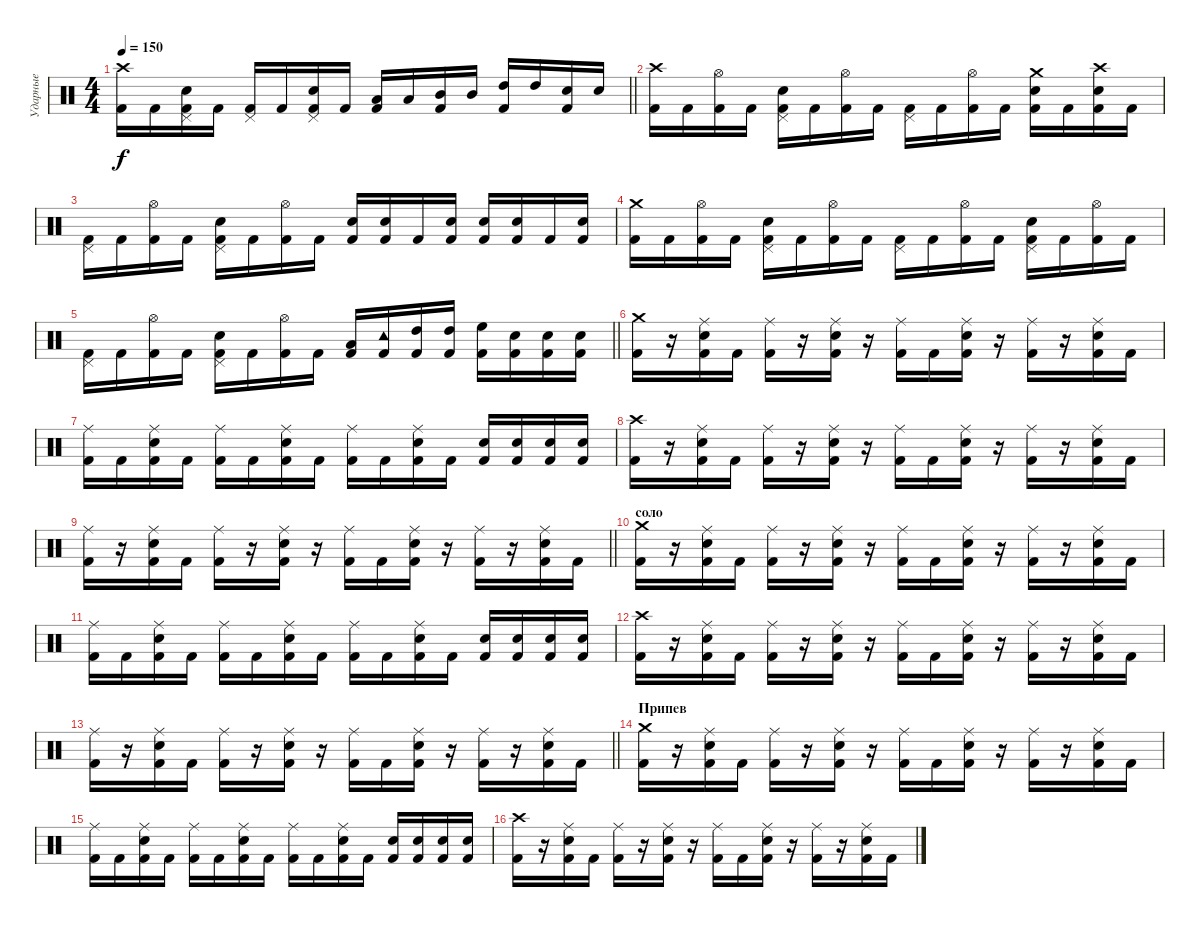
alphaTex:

\track ("Ударные" "Ударные") {instrument percussion}
\staff {score}
\articulation defaults
\ts (4 4)
\tempo 150
\clef neutral
\barLineRight lightlight
\ks c
("Crash high (hit)" "Kick (hit) 2").16{dy f} "Kick (hit) 2".16 ("Pedal Hi-Hat (hit)" "Snare (hit) 2" "Kick (hit) 2").16 "Kick (hit) 2".16 ("Pedal Hi-Hat (hit)" "Kick (hit) 2").16 "Kick (hit) 2".16 ("Pedal Hi-Hat (hit)" "Snare (hit) 2" "Kick (hit) 2").16 "Kick (hit) 2".16 ("Low Tom (hit)" "Kick (hit) 2").16 "Low Tom (hit)".16 ("Mid Tom (hit)" "Kick (hit) 2").16 "Mid Tom (hit)".16 ("High Tom (hit)" "Kick (hit) 2").16 "High Tom (hit)".16 ("Snare (hit) 2" "Kick (hit) 2").16 "Snare (hit) 2".16 |
("Crash high (hit)" "Kick (hit) 2").16 "Kick (hit) 2".16 ("Hi-Hat (open)" "Kick (hit) 2").16 "Kick (hit) 2".16 ("Pedal Hi-Hat (hit)" "Snare (hit) 2" "Kick (hit) 2").16 "Kick (hit) 2".16 ("Hi-Hat (open)" "Kick (hit) 2").16 "Kick (hit) 2".16 ("Pedal Hi-Hat (hit)" "Kick (hit) 2").16 "Kick (hit) 2".16 ("Hi-Hat (open)" "Kick (hit) 2").16 "Kick (hit) 2".16 ("Crash medium (hit)" "Snare (hit) 2" "Kick (hit) 2").16 "Kick (hit) 2".16 ("Crash high (hit)" "Snare (hit) 2" "Kick (hit) 2").16 "Kick (hit) 2".16 |
("Pedal Hi-Hat (hit)" "Kick (hit) 2").16 "Kick (hit) 2".16 ("Hi-Hat (open)" "Kick (hit) 2").16 "Kick (hit) 2".16 ("Pedal Hi-Hat (hit)" "Snare (hit) 2" "Kick (hit) 2").16 "Kick (hit) 2".16 ("Hi-Hat (open)" "Kick (hit) 2").16 "Kick (hit) 2".16 ("Snare (hit) 2" "Kick (hit) 2").16 ("Snare (hit) 2" "Kick (hit) 2").16 "Kick (hit) 2".16 ("Snare (hit) 2" "Kick (hit) 2").16 ("Snare (hit) 2" "Kick (hit) 2").16 ("Snare (hit) 2" "Kick (hit) 2").16 "Kick (hit) 2".16 ("Snare (hit) 2" "Kick (hit) 2").16 |
("Crash medium (hit)" "Kick (hit) 2").16 "Kick (hit) 2".16 ("Hi-Hat (open)" "Kick (hit) 2").16 "Kick (hit) 2".16 ("Pedal Hi-Hat (hit)" "Snare (hit) 2" "Kick (hit) 2").16 "Kick (hit) 2".16 ("Hi-Hat (open)" "Kick (hit) 2").16 "Kick (hit) 2".16 ("Pedal Hi-Hat (hit)" "Kick (hit) 2").16 "Kick (hit) 2".16 ("Hi-Hat (open)" "Kick (hit) 2").16 "Kick (hit) 2".16 ("Pedal Hi-Hat (hit)" "Snare (hit) 2" "Kick (hit) 2").16 "Kick (hit) 2".16 ("Hi-Hat (open)" "Kick (hit) 2").16 "Kick (hit) 2".16 |
\barLineRight lightlight
("Pedal Hi-Hat (hit)" "Kick (hit) 2").16 "Kick (hit) 2".16 ("Hi-Hat (open)" "Kick (hit) 2").16 "Kick (hit) 2".16 ("Pedal Hi-Hat (hit)" "Snare (hit) 2" "Kick (hit) 2").16 "Kick (hit) 2".16 ("Hi-Hat (open)" "Kick (hit) 2").16 "Kick (hit) 2".16 ("Low Tom (hit)" "Kick (hit) 2").16 ("Tambourine (hit)" "Kick (hit) 2").16 ("High Tom (hit)" "Kick (hit) 2").16 ("High Tom (hit)" "Kick (hit) 2").16 ("High Floor Tom (hit)" "Kick (hit) 2").16 ("Snare (hit) 2" "Kick (hit) 2").16 ("Snare (hit) 2" "Kick (hit) 2").16 ("Snare (hit) 2" "Kick (hit) 2").16 |
("Crash medium (hit)" "Kick (hit) 2").16 r.16 ("Ride (middle)" "Snare (hit) 2" "Kick (hit) 2").16 "Kick (hit) 2".16 ("Ride (middle)" "Kick (hit) 2").16 r.16 ("Ride (middle)" "Snare (hit) 2" "Kick (hit) 2").16 r.16 ("Ride (middle)" "Kick (hit) 2").16 "Kick (hit) 2".16 ("Ride (middle)" "Snare (hit) 2" "Kick (hit) 2").16 r.16 ("Ride (middle)" "Kick (hit) 2").16 r.16 ("Ride (middle)" "Snare (hit) 2" "Kick (hit) 2").16 "Kick (hit) 2".16 |
("Ride (middle)" "Kick (hit) 2").16 "Kick (hit) 2".16 ("Ride (middle)" "Snare (hit) 2" "Kick (hit) 2").16 "Kick (hit) 2".16 ("Ride (middle)" "Kick (hit) 2").16 "Kick (hit) 2".16 ("Ride (middle)" "Snare (hit) 2" "Kick (hit) 2").16 "Kick (hit) 2".16 ("Ride (middle)" "Kick (hit) 2").16 "Kick (hit) 2".16 ("Ride (middle)" "Snare (hit) 2" "Kick (hit) 2").16 "Kick (hit) 2".16 ("Snare (hit) 2" "Kick (hit) 2").16 ("Snare (hit) 2" "Kick (hit) 2").16 ("Snare (hit) 2" "Kick (hit) 2").16 ("Snare (hit) 2" "Kick (hit) 2").16 |
("Crash high (hit)" "Kick (hit) 2").16 r.16 ("Ride (middle)" "Snare (hit) 2" "Kick (hit) 2").16 "Kick (hit) 2".16 ("Ride (middle)" "Kick (hit) 2").16 r.16 ("Ride (middle)" "Snare (hit) 2" "Kick (hit) 2").16 r.16 ("Ride (middle)" "Kick (hit) 2").16 "Kick (hit) 2".16 ("Ride (middle)" "Snare (hit) 2" "Kick (hit) 2").16 r.16 ("Ride (middle)" "Kick (hit) 2").16 r.16 ("Ride (middle)" "Snare (hit) 2" "Kick (hit) 2").16 "Kick (hit) 2".16 |
\barLineRight lightlight
("Ride (middle)" "Kick (hit) 2").16 r.16 ("Ride (middle)" "Snare (hit) 2" "Kick (hit) 2").16 "Kick (hit) 2".16 ("Ride (middle)" "Kick (hit) 2").16 r.16 ("Ride (middle)" "Snare (hit) 2" "Kick (hit) 2").16 r.16 ("Ride (middle)" "Kick (hit) 2").16 "Kick (hit) 2".16 ("Ride (middle)" "Snare (hit) 2" "Kick (hit) 2").16 r.16 ("Ride (middle)" "Kick (hit) 2").16 r.16 ("Ride (middle)" "Snare (hit) 2" "Kick (hit) 2").16 "Kick (hit) 2".16 |
\section ("" "соло")
("Crash medium (hit)" "Kick (hit) 2").16 r.16 ("Ride (middle)" "Snare (hit) 2" "Kick (hit) 2").16 "Kick (hit) 2".16 ("Ride (middle)" "Kick (hit) 2").16 r.16 ("Ride (middle)" "Snare (hit) 2" "Kick (hit) 2").16 r.16 ("Ride (middle)" "Kick (hit) 2").16 "Kick (hit) 2".16 ("Ride (middle)" "Snare (hit) 2" "Kick (hit) 2").16 r.16 ("Ride (middle)" "Kick (hit) 2").16 r.16 ("Ride (middle)" "Snare (hit) 2" "Kick (hit) 2").16 "Kick (hit) 2".16 |
("Ride (middle)" "Kick (hit) 2").16 "Kick (hit) 2".16 ("Ride (middle)" "Snare (hit) 2" "Kick (hit) 2").16 "Kick (hit) 2".16 ("Ride (middle)" "Kick (hit) 2").16 "Kick (hit) 2".16 ("Ride (middle)" "Snare (hit) 2" "Kick (hit) 2").16 "Kick (hit) 2".16 ("Ride (middle)" "Kick (hit) 2").16 "Kick (hit) 2".16 ("Ride (middle)" "Snare (hit) 2" "Kick (hit) 2").16 "Kick (hit) 2".16 ("Snare (hit) 2" "Kick (hit) 2").16 ("Snare (hit) 2" "Kick (hit) 2").16 ("Snare (hit) 2" "Kick (hit) 2").16 ("Snare (hit) 2" "Kick (hit) 2").16 |
("Crash high (hit)" "Kick (hit) 2").16 r.16 ("Ride (middle)" "Snare (hit) 2" "Kick (hit) 2").16 "Kick (hit) 2".16 ("Ride (middle)" "Kick (hit) 2").16 r.16 ("Ride (middle)" "Snare (hit) 2" "Kick (hit) 2").16 r.16 ("Ride (middle)" "Kick (hit) 2").16 "Kick (hit) 2".16 ("Ride (middle)" "Snare (hit) 2" "Kick (hit) 2").16 r.16 ("Ride (middle)" "Kick (hit) 2").16 r.16 ("Ride (middle)" "Snare (hit) 2" "Kick (hit) 2").16 "Kick (hit) 2".16 |
\barLineRight lightlight
("Ride (middle)" "Kick (hit) 2").16 r.16 ("Ride (middle)" "Snare (hit) 2" "Kick (hit) 2").16 "Kick (hit) 2".16 ("Ride (middle)" "Kick (hit) 2").16 r.16 ("Ride (middle)" "Snare (hit) 2" "Kick (hit) 2").16 r.16 ("Ride (middle)" "Kick (hit) 2").16 "Kick (hit) 2".16 ("Ride (middle)" "Snare (hit) 2" "Kick (hit) 2").16 r.16 ("Ride (middle)" "Kick (hit) 2").16 r.16 ("Ride (middle)" "Snare (hit) 2" "Kick (hit) 2").16 "Kick (hit) 2".16 |
\section ("" "Припев")
("Crash medium (hit)" "Kick (hit) 2").16 r.16 ("Ride (middle)" "Snare (hit) 2" "Kick (hit) 2").16 "Kick (hit) 2".16 ("Ride (middle)" "Kick (hit) 2").16 r.16 ("Ride (middle)" "Snare (hit) 2" "Kick (hit) 2").16 r.16 ("Ride (middle)" "Kick (hit) 2").16 "Kick (hit) 2".16 ("Ride (middle)" "Snare (hit) 2" "Kick (hit) 2").16 r.16 ("Ride (middle)" "Kick (hit) 2").16 r.16 ("Ride (middle)" "Snare (hit) 2" "Kick (hit) 2").16 "Kick (hit) 2".16 |
("Ride (middle)" "Kick (hit) 2").16 "Kick (hit) 2".16 ("Ride (middle)" "Snare (hit) 2" "Kick (hit) 2").16 "Kick (hit) 2".16 ("Ride (middle)" "Kick (hit) 2").16 "Kick (hit) 2".16 ("Ride (middle)" "Snare (hit) 2" "Kick (hit) 2").16 "Kick (hit) 2".16 ("Ride (middle)" "Kick (hit) 2").16 "Kick (hit) 2".16 ("Ride (middle)" "Snare (hit) 2" "Kick (hit) 2").16 "Kick (hit) 2".16 ("Snare (hit) 2" "Kick (hit) 2").16 ("Snare (hit) 2" "Kick (hit) 2").16 ("Snare (hit) 2" "Kick (hit) 2").16 ("Snare (hit) 2" "Kick (hit) 2").16 |
("Crash high (hit)" "Kick (hit) 2").16 r.16 ("Ride (middle)" "Snare (hit) 2" "Kick (hit) 2").16 "Kick (hit) 2".16 ("Ride (middle)" "Kick (hit) 2").16 r.16 ("Ride (middle)" "Snare (hit) 2" "Kick (hit) 2").16 r.16 ("Ride (middle)" "Kick (hit) 2").16 "Kick (hit) 2".16 ("Ride (middle)" "Snare (hit) 2" "Kick (hit) 2").16 r.16 ("Ride (middle)" "Kick (hit) 2").16 r.16 ("Ride (middle)" "Snare (hit) 2" "Kick (hit) 2").16 "Kick (hit) 2".16
